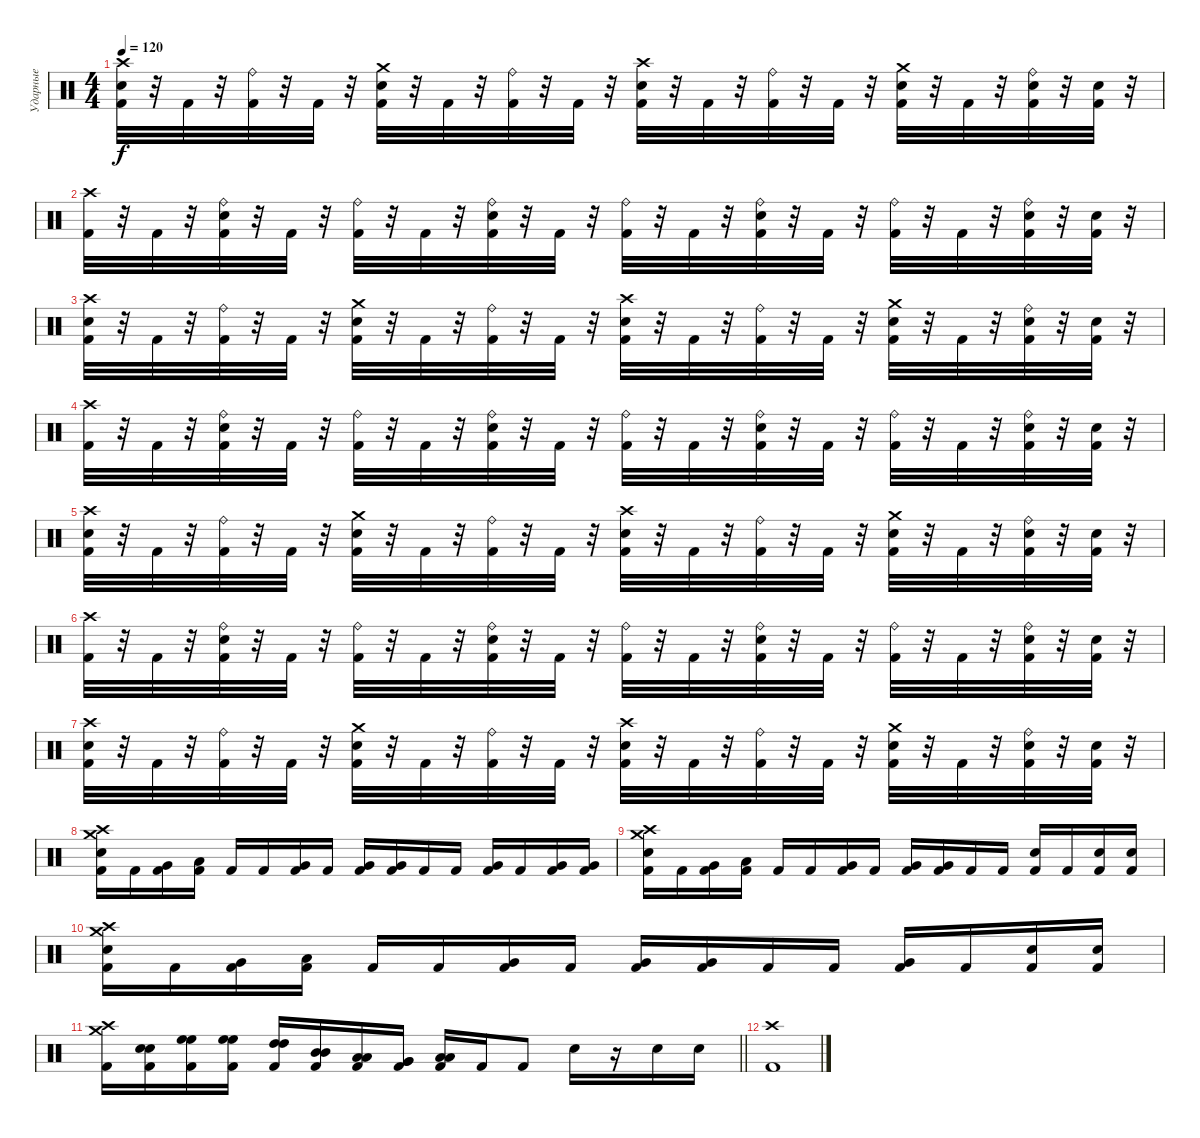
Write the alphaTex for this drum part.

\track ("Ударные" "Ударные") {instrument percussion}
\staff {score}
\articulation defaults
\ts (4 4)
\tempo 120
\clef neutral
\ks c
("Crash high (hit)" "Snare (hit) 2" "Kick (hit) 2").32{dy f} r.32 "Kick (hit) 2".32 r.32 ("Ride (bell)" "Kick (hit) 2").32 r.32 "Kick (hit) 2".32 r.32 ("Crash medium (hit)" "Snare (hit) 2" "Kick (hit) 2").32 r.32 "Kick (hit) 2".32 r.32 ("Ride (bell)" "Kick (hit) 2").32 r.32 "Kick (hit) 2".32 r.32 ("Crash high (hit)" "Snare (hit) 2" "Kick (hit) 2").32 r.32 "Kick (hit) 2".32 r.32 ("Ride (bell)" "Kick (hit) 2").32 r.32 "Kick (hit) 2".32 r.32 ("Crash medium (hit)" "Snare (hit) 2" "Kick (hit) 2").32 r.32 "Kick (hit) 2".32 r.32 ("Ride (bell)" "Snare (hit) 2" "Kick (hit) 2").32 r.32 ("Snare (hit) 2" "Kick (hit) 2").32 r.32 |
("Crash high (hit)" "Kick (hit) 2").32 r.32 "Kick (hit) 2".32 r.32 ("Ride (bell)" "Snare (hit) 2" "Kick (hit) 2").32 r.32 "Kick (hit) 2".32 r.32 ("Ride (bell)" "Kick (hit) 2").32 r.32 "Kick (hit) 2".32 r.32 ("Ride (bell)" "Snare (hit) 2" "Kick (hit) 2").32 r.32 "Kick (hit) 2".32 r.32 ("Ride (bell)" "Kick (hit) 2").32 r.32 "Kick (hit) 2".32 r.32 ("Ride (bell)" "Snare (hit) 2" "Kick (hit) 2").32 r.32 "Kick (hit) 2".32 r.32 ("Ride (bell)" "Kick (hit) 2").32 r.32 "Kick (hit) 2".32 r.32 ("Ride (bell)" "Snare (hit) 2" "Kick (hit) 2").32 r.32 ("Snare (hit) 2" "Kick (hit) 2").32 r.32 |
("Crash high (hit)" "Snare (hit) 2" "Kick (hit) 2").32 r.32 "Kick (hit) 2".32 r.32 ("Ride (bell)" "Kick (hit) 2").32 r.32 "Kick (hit) 2".32 r.32 ("Crash medium (hit)" "Snare (hit) 2" "Kick (hit) 2").32 r.32 "Kick (hit) 2".32 r.32 ("Ride (bell)" "Kick (hit) 2").32 r.32 "Kick (hit) 2".32 r.32 ("Crash high (hit)" "Snare (hit) 2" "Kick (hit) 2").32 r.32 "Kick (hit) 2".32 r.32 ("Ride (bell)" "Kick (hit) 2").32 r.32 "Kick (hit) 2".32 r.32 ("Crash medium (hit)" "Snare (hit) 2" "Kick (hit) 2").32 r.32 "Kick (hit) 2".32 r.32 ("Ride (bell)" "Snare (hit) 2" "Kick (hit) 2").32 r.32 ("Snare (hit) 2" "Kick (hit) 2").32 r.32 |
("Crash high (hit)" "Kick (hit) 2").32 r.32 "Kick (hit) 2".32 r.32 ("Ride (bell)" "Snare (hit) 2" "Kick (hit) 2").32 r.32 "Kick (hit) 2".32 r.32 ("Ride (bell)" "Kick (hit) 2").32 r.32 "Kick (hit) 2".32 r.32 ("Ride (bell)" "Snare (hit) 2" "Kick (hit) 2").32 r.32 "Kick (hit) 2".32 r.32 ("Ride (bell)" "Kick (hit) 2").32 r.32 "Kick (hit) 2".32 r.32 ("Ride (bell)" "Snare (hit) 2" "Kick (hit) 2").32 r.32 "Kick (hit) 2".32 r.32 ("Ride (bell)" "Kick (hit) 2").32 r.32 "Kick (hit) 2".32 r.32 ("Ride (bell)" "Snare (hit) 2" "Kick (hit) 2").32 r.32 ("Snare (hit) 2" "Kick (hit) 2").32 r.32 |
("Crash high (hit)" "Snare (hit) 2" "Kick (hit) 2").32 r.32 "Kick (hit) 2".32 r.32 ("Ride (bell)" "Kick (hit) 2").32 r.32 "Kick (hit) 2".32 r.32 ("Crash medium (hit)" "Snare (hit) 2" "Kick (hit) 2").32 r.32 "Kick (hit) 2".32 r.32 ("Ride (bell)" "Kick (hit) 2").32 r.32 "Kick (hit) 2".32 r.32 ("Crash high (hit)" "Snare (hit) 2" "Kick (hit) 2").32 r.32 "Kick (hit) 2".32 r.32 ("Ride (bell)" "Kick (hit) 2").32 r.32 "Kick (hit) 2".32 r.32 ("Crash medium (hit)" "Snare (hit) 2" "Kick (hit) 2").32 r.32 "Kick (hit) 2".32 r.32 ("Ride (bell)" "Snare (hit) 2" "Kick (hit) 2").32 r.32 ("Snare (hit) 2" "Kick (hit) 2").32 r.32 |
("Crash high (hit)" "Kick (hit) 2").32 r.32 "Kick (hit) 2".32 r.32 ("Ride (bell)" "Snare (hit) 2" "Kick (hit) 2").32 r.32 "Kick (hit) 2".32 r.32 ("Ride (bell)" "Kick (hit) 2").32 r.32 "Kick (hit) 2".32 r.32 ("Ride (bell)" "Snare (hit) 2" "Kick (hit) 2").32 r.32 "Kick (hit) 2".32 r.32 ("Ride (bell)" "Kick (hit) 2").32 r.32 "Kick (hit) 2".32 r.32 ("Ride (bell)" "Snare (hit) 2" "Kick (hit) 2").32 r.32 "Kick (hit) 2".32 r.32 ("Ride (bell)" "Kick (hit) 2").32 r.32 "Kick (hit) 2".32 r.32 ("Ride (bell)" "Snare (hit) 2" "Kick (hit) 2").32 r.32 ("Snare (hit) 2" "Kick (hit) 2").32 r.32 |
("Crash high (hit)" "Snare (hit) 2" "Kick (hit) 2").32 r.32 "Kick (hit) 2".32 r.32 ("Ride (bell)" "Kick (hit) 2").32 r.32 "Kick (hit) 2".32 r.32 ("Crash medium (hit)" "Snare (hit) 2" "Kick (hit) 2").32 r.32 "Kick (hit) 2".32 r.32 ("Ride (bell)" "Kick (hit) 2").32 r.32 "Kick (hit) 2".32 r.32 ("Crash high (hit)" "Snare (hit) 2" "Kick (hit) 2").32 r.32 "Kick (hit) 2".32 r.32 ("Ride (bell)" "Kick (hit) 2").32 r.32 "Kick (hit) 2".32 r.32 ("Crash medium (hit)" "Snare (hit) 2" "Kick (hit) 2").32 r.32 "Kick (hit) 2".32 r.32 ("Ride (bell)" "Snare (hit) 2" "Kick (hit) 2").32 r.32 ("Snare (hit) 2" "Kick (hit) 2").32 r.32 |
("Crash medium (hit)" "Crash high (hit)" "Snare (hit) 2" "Kick (hit) 2").16 "Kick (hit) 2".16 ("Very Low Tom (hit)" "Kick (hit) 2").16 ("Low Tom (hit)" "Kick (hit) 2").16 "Kick (hit) 2".16 "Kick (hit) 2".16 ("Very Low Tom (hit)" "Kick (hit) 2").16 "Kick (hit) 2".16 ("Very Low Tom (hit)" "Kick (hit) 2").16 ("Very Low Tom (hit)" "Kick (hit) 2").16 "Kick (hit) 2".16 "Kick (hit) 2".16 ("Very Low Tom (hit)" "Kick (hit) 2").16 "Kick (hit) 2".16 ("Very Low Tom (hit)" "Kick (hit) 2").16 ("Very Low Tom (hit)" "Kick (hit) 2").16 |
("Crash medium (hit)" "Crash high (hit)" "Snare (hit) 2" "Kick (hit) 2").16 "Kick (hit) 2".16 ("Very Low Tom (hit)" "Kick (hit) 2").16 ("Low Tom (hit)" "Kick (hit) 2").16 "Kick (hit) 2".16 "Kick (hit) 2".16 ("Very Low Tom (hit)" "Kick (hit) 2").16 "Kick (hit) 2".16 ("Very Low Tom (hit)" "Kick (hit) 2").16 ("Very Low Tom (hit)" "Kick (hit) 2").16 "Kick (hit) 2".16 "Kick (hit) 2".16 ("Snare (hit) 2" "Kick (hit) 2").16 "Kick (hit) 2".16 ("Snare (hit) 2" "Kick (hit) 2").16 ("Snare (hit) 2" "Kick (hit) 2").16 |
("Crash medium (hit)" "Crash high (hit)" "Snare (hit) 2" "Kick (hit) 2").16 "Kick (hit) 2".16 ("Very Low Tom (hit)" "Kick (hit) 2").16 ("Low Tom (hit)" "Kick (hit) 2").16 "Kick (hit) 2".16 "Kick (hit) 2".16 ("Very Low Tom (hit)" "Kick (hit) 2").16 "Kick (hit) 2".16 ("Very Low Tom (hit)" "Kick (hit) 2").16 ("Very Low Tom (hit)" "Kick (hit) 2").16 "Kick (hit) 2".16 "Kick (hit) 2".16 ("Very Low Tom (hit)" "Kick (hit) 2").16 "Kick (hit) 2".16 ("Snare (hit) 2" "Kick (hit) 2").16 ("Snare (hit) 2" "Kick (hit) 2").16 |
\barLineRight lightlight
("Crash medium (hit)" "Crash high (hit)" "Kick (hit) 2").16 ("Snare (hit) 2" "Snare (hit) 2" "Kick (hit) 2").16 ("High Floor Tom (hit)" "High Floor Tom (hit)" "Kick (hit) 2").16 ("High Floor Tom (hit)" "High Floor Tom (hit)" "Kick (hit) 2").16 ("High Tom (hit)" "High Tom (hit)" "Kick (hit) 2").16 ("Mid Tom (hit)" "Mid Tom (hit)" "Kick (hit) 2").16 ("Low Tom (hit)" "Low Tom (hit)" "Kick (hit) 2").16 ("Very Low Tom (hit)" "Very Low Tom (hit)" "Kick (hit) 2").16 ("Low Floor Tom (hit)" "Low Floor Tom (hit)" "Kick (hit) 2").16 "Kick (hit) 2".16 "Kick (hit) 2".8 "Snare (hit) 2".16 r.16 "Snare (hit) 2".16 "Snare (hit) 2".16 |
("Crash high (hit)" "Kick (hit) 2").1
